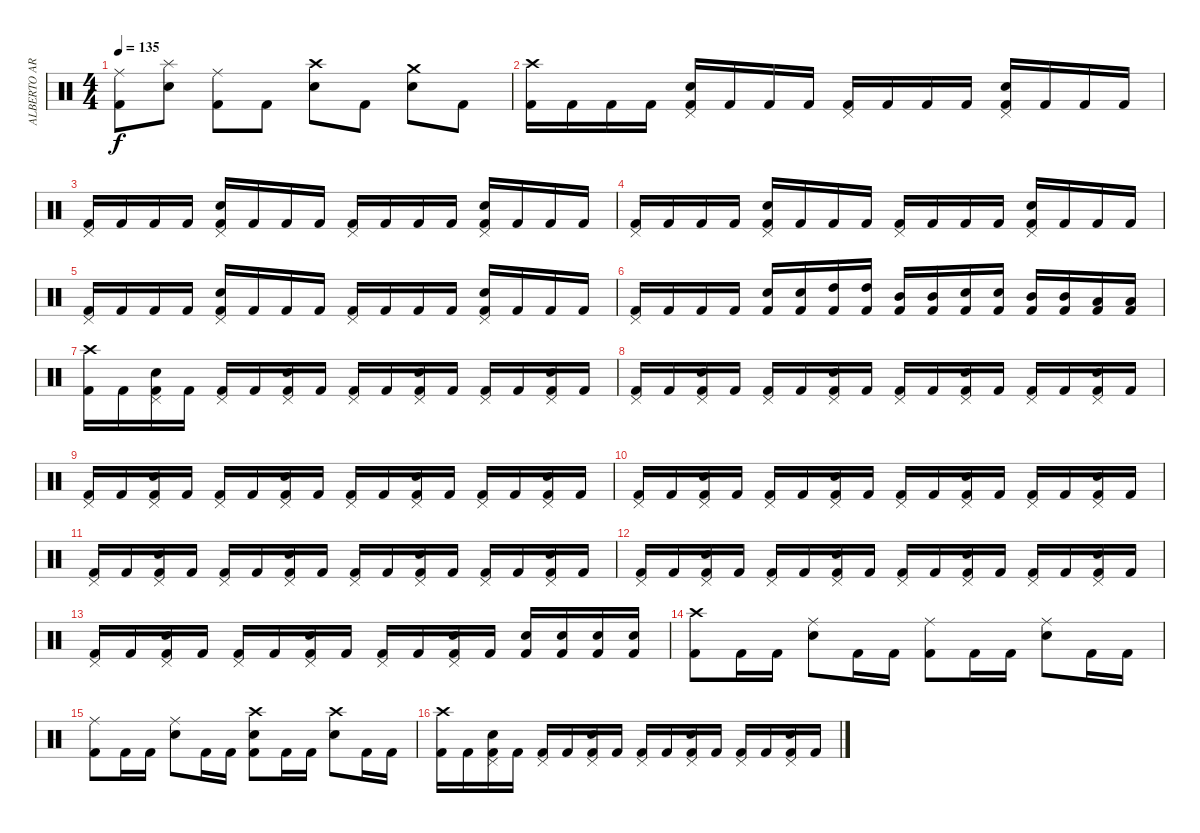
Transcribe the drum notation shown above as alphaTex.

\track ("ALBERTO ARDINES" "ALBERTO AR") {instrument percussion}
\staff {score}
\articulation defaults
\ts (4 4)
\tempo 135
\clef neutral
\ks c
("Ride (middle)" "Kick (hit) 2").8{dy f} ("Splash (hit)" "Electric Snare (hit)").8 ("Ride (middle)" "Kick (hit) 2").8 "Kick (hit) 2".8 ("Crash high (hit)" "Electric Snare (hit)").8 "Kick (hit) 2".8 ("Crash medium (hit)" "Electric Snare (hit)").8 "Kick (hit) 2".8 |
("Crash high (hit)" "Kick (hit) 2").16 "Kick (hit) 2".16 "Kick (hit) 2".16 "Kick (hit) 2".16 ("Pedal Hi-Hat (hit)" "Electric Snare (hit)" "Kick (hit) 2").16 "Kick (hit) 2".16 "Kick (hit) 2".16 "Kick (hit) 2".16 ("Pedal Hi-Hat (hit)" "Kick (hit) 2").16 "Kick (hit) 2".16 "Kick (hit) 2".16 "Kick (hit) 2".16 ("Pedal Hi-Hat (hit)" "Electric Snare (hit)" "Kick (hit) 2").16 "Kick (hit) 2".16 "Kick (hit) 2".16 "Kick (hit) 2".16 |
("Pedal Hi-Hat (hit)" "Kick (hit) 2").16 "Kick (hit) 2".16 "Kick (hit) 2".16 "Kick (hit) 2".16 ("Pedal Hi-Hat (hit)" "Electric Snare (hit)" "Kick (hit) 2").16 "Kick (hit) 2".16 "Kick (hit) 2".16 "Kick (hit) 2".16 ("Pedal Hi-Hat (hit)" "Kick (hit) 2").16 "Kick (hit) 2".16 "Kick (hit) 2".16 "Kick (hit) 2".16 ("Pedal Hi-Hat (hit)" "Electric Snare (hit)" "Kick (hit) 2").16 "Kick (hit) 2".16 "Kick (hit) 2".16 "Kick (hit) 2".16 |
("Pedal Hi-Hat (hit)" "Kick (hit) 2").16 "Kick (hit) 2".16 "Kick (hit) 2".16 "Kick (hit) 2".16 ("Pedal Hi-Hat (hit)" "Electric Snare (hit)" "Kick (hit) 2").16 "Kick (hit) 2".16 "Kick (hit) 2".16 "Kick (hit) 2".16 ("Pedal Hi-Hat (hit)" "Kick (hit) 2").16 "Kick (hit) 2".16 "Kick (hit) 2".16 "Kick (hit) 2".16 ("Pedal Hi-Hat (hit)" "Electric Snare (hit)" "Kick (hit) 2").16 "Kick (hit) 2".16 "Kick (hit) 2".16 "Kick (hit) 2".16 |
("Pedal Hi-Hat (hit)" "Kick (hit) 2").16 "Kick (hit) 2".16 "Kick (hit) 2".16 "Kick (hit) 2".16 ("Pedal Hi-Hat (hit)" "Electric Snare (hit)" "Kick (hit) 2").16 "Kick (hit) 2".16 "Kick (hit) 2".16 "Kick (hit) 2".16 ("Pedal Hi-Hat (hit)" "Kick (hit) 2").16 "Kick (hit) 2".16 "Kick (hit) 2".16 "Kick (hit) 2".16 ("Pedal Hi-Hat (hit)" "Electric Snare (hit)" "Kick (hit) 2").16 "Kick (hit) 2".16 "Kick (hit) 2".16 "Kick (hit) 2".16 |
("Pedal Hi-Hat (hit)" "Kick (hit) 2").16 "Kick (hit) 2".16 "Kick (hit) 2".16 "Kick (hit) 2".16 ("Electric Snare (hit)" "Kick (hit) 2").16 ("Electric Snare (hit)" "Kick (hit) 2").16 ("High Tom (hit)" "Kick (hit) 2").16 ("High Tom (hit)" "Kick (hit) 2").16 ("Mid Tom (hit)" "Kick (hit) 2").16 ("Mid Tom (hit)" "Kick (hit) 2").16 ("Electric Snare (hit)" "Kick (hit) 2").16 ("Electric Snare (hit)" "Kick (hit) 2").16 ("Mid Tom (hit)" "Kick (hit) 2").16 ("Mid Tom (hit)" "Kick (hit) 2").16 ("Low Tom (hit)" "Kick (hit) 2").16 ("Low Tom (hit)" "Kick (hit) 2").16 |
("Crash high (hit)" "Kick (hit) 2").16 "Kick (hit) 2".16 ("Pedal Hi-Hat (hit)" "Electric Snare (hit)" "Kick (hit) 2").16 "Kick (hit) 2".16 ("Pedal Hi-Hat (hit)" "Kick (hit) 2").16 "Kick (hit) 2".16 ("Pedal Hi-Hat (hit)" "Electric Snare (hit)" "Kick (hit) 2").16 "Kick (hit) 2".16 ("Pedal Hi-Hat (hit)" "Kick (hit) 2").16 "Kick (hit) 2".16 ("Pedal Hi-Hat (hit)" "Electric Snare (hit)" "Kick (hit) 2").16 "Kick (hit) 2".16 ("Pedal Hi-Hat (hit)" "Kick (hit) 2").16 "Kick (hit) 2".16 ("Pedal Hi-Hat (hit)" "Electric Snare (hit)" "Kick (hit) 2").16 "Kick (hit) 2".16 |
("Pedal Hi-Hat (hit)" "Kick (hit) 2").16 "Kick (hit) 2".16 ("Pedal Hi-Hat (hit)" "Electric Snare (hit)" "Kick (hit) 2").16 "Kick (hit) 2".16 ("Pedal Hi-Hat (hit)" "Kick (hit) 2").16 "Kick (hit) 2".16 ("Pedal Hi-Hat (hit)" "Electric Snare (hit)" "Kick (hit) 2").16 "Kick (hit) 2".16 ("Pedal Hi-Hat (hit)" "Kick (hit) 2").16 "Kick (hit) 2".16 ("Pedal Hi-Hat (hit)" "Electric Snare (hit)" "Kick (hit) 2").16 "Kick (hit) 2".16 ("Pedal Hi-Hat (hit)" "Kick (hit) 2").16 "Kick (hit) 2".16 ("Pedal Hi-Hat (hit)" "Electric Snare (hit)" "Kick (hit) 2").16 "Kick (hit) 2".16 |
("Pedal Hi-Hat (hit)" "Kick (hit) 2").16 "Kick (hit) 2".16 ("Pedal Hi-Hat (hit)" "Electric Snare (hit)" "Kick (hit) 2").16 "Kick (hit) 2".16 ("Pedal Hi-Hat (hit)" "Kick (hit) 2").16 "Kick (hit) 2".16 ("Pedal Hi-Hat (hit)" "Electric Snare (hit)" "Kick (hit) 2").16 "Kick (hit) 2".16 ("Pedal Hi-Hat (hit)" "Kick (hit) 2").16 "Kick (hit) 2".16 ("Pedal Hi-Hat (hit)" "Electric Snare (hit)" "Kick (hit) 2").16 "Kick (hit) 2".16 ("Pedal Hi-Hat (hit)" "Kick (hit) 2").16 "Kick (hit) 2".16 ("Pedal Hi-Hat (hit)" "Electric Snare (hit)" "Kick (hit) 2").16 "Kick (hit) 2".16 |
("Pedal Hi-Hat (hit)" "Kick (hit) 2").16 "Kick (hit) 2".16 ("Pedal Hi-Hat (hit)" "Electric Snare (hit)" "Kick (hit) 2").16 "Kick (hit) 2".16 ("Pedal Hi-Hat (hit)" "Kick (hit) 2").16 "Kick (hit) 2".16 ("Pedal Hi-Hat (hit)" "Electric Snare (hit)" "Kick (hit) 2").16 "Kick (hit) 2".16 ("Pedal Hi-Hat (hit)" "Kick (hit) 2").16 "Kick (hit) 2".16 ("Pedal Hi-Hat (hit)" "Electric Snare (hit)" "Kick (hit) 2").16 "Kick (hit) 2".16 ("Pedal Hi-Hat (hit)" "Kick (hit) 2").16 "Kick (hit) 2".16 ("Pedal Hi-Hat (hit)" "Electric Snare (hit)" "Kick (hit) 2").16 "Kick (hit) 2".16 |
("Pedal Hi-Hat (hit)" "Kick (hit) 2").16 "Kick (hit) 2".16 ("Pedal Hi-Hat (hit)" "Electric Snare (hit)" "Kick (hit) 2").16 "Kick (hit) 2".16 ("Pedal Hi-Hat (hit)" "Kick (hit) 2").16 "Kick (hit) 2".16 ("Pedal Hi-Hat (hit)" "Electric Snare (hit)" "Kick (hit) 2").16 "Kick (hit) 2".16 ("Pedal Hi-Hat (hit)" "Kick (hit) 2").16 "Kick (hit) 2".16 ("Pedal Hi-Hat (hit)" "Electric Snare (hit)" "Kick (hit) 2").16 "Kick (hit) 2".16 ("Pedal Hi-Hat (hit)" "Kick (hit) 2").16 "Kick (hit) 2".16 ("Pedal Hi-Hat (hit)" "Electric Snare (hit)" "Kick (hit) 2").16 "Kick (hit) 2".16 |
("Pedal Hi-Hat (hit)" "Kick (hit) 2").16 "Kick (hit) 2".16 ("Pedal Hi-Hat (hit)" "Electric Snare (hit)" "Kick (hit) 2").16 "Kick (hit) 2".16 ("Pedal Hi-Hat (hit)" "Kick (hit) 2").16 "Kick (hit) 2".16 ("Pedal Hi-Hat (hit)" "Electric Snare (hit)" "Kick (hit) 2").16 "Kick (hit) 2".16 ("Pedal Hi-Hat (hit)" "Kick (hit) 2").16 "Kick (hit) 2".16 ("Pedal Hi-Hat (hit)" "Electric Snare (hit)" "Kick (hit) 2").16 "Kick (hit) 2".16 ("Pedal Hi-Hat (hit)" "Kick (hit) 2").16 "Kick (hit) 2".16 ("Pedal Hi-Hat (hit)" "Electric Snare (hit)" "Kick (hit) 2").16 "Kick (hit) 2".16 |
("Pedal Hi-Hat (hit)" "Kick (hit) 2").16 "Kick (hit) 2".16 ("Pedal Hi-Hat (hit)" "Electric Snare (hit)" "Kick (hit) 2").16 "Kick (hit) 2".16 ("Pedal Hi-Hat (hit)" "Kick (hit) 2").16 "Kick (hit) 2".16 ("Pedal Hi-Hat (hit)" "Electric Snare (hit)" "Kick (hit) 2").16 "Kick (hit) 2".16 ("Pedal Hi-Hat (hit)" "Kick (hit) 2").16 "Kick (hit) 2".16 ("Pedal Hi-Hat (hit)" "Electric Snare (hit)" "Kick (hit) 2").16 "Kick (hit) 2".16 ("Electric Snare (hit)" "Kick (hit) 2").16 ("Electric Snare (hit)" "Kick (hit) 2").16 ("Electric Snare (hit)" "Kick (hit) 2").16 ("Electric Snare (hit)" "Kick (hit) 2").16 |
("Crash high (hit)" "Kick (hit) 2").8 "Kick (hit) 2".16 "Kick (hit) 2".16 ("Ride (middle)" "Electric Snare (hit)").8 "Kick (hit) 2".16 "Kick (hit) 2".16 ("Ride (middle)" "Kick (hit) 2").8 "Kick (hit) 2".16 "Kick (hit) 2".16 ("Ride (middle)" "Electric Snare (hit)").8 "Kick (hit) 2".16 "Kick (hit) 2".16 |
("Ride (middle)" "Kick (hit) 2").8 "Kick (hit) 2".16 "Kick (hit) 2".16 ("Ride (middle)" "Electric Snare (hit)").8 "Kick (hit) 2".16 "Kick (hit) 2".16 ("Crash high (hit)" "Electric Snare (hit)" "Kick (hit) 2").8 "Kick (hit) 2".16 "Kick (hit) 2".16 ("Crash high (hit)" "Electric Snare (hit)").8 "Kick (hit) 2".16 "Kick (hit) 2".16 |
("Crash high (hit)" "Kick (hit) 2").16 "Kick (hit) 2".16 ("Pedal Hi-Hat (hit)" "Electric Snare (hit)" "Kick (hit) 2").16 "Kick (hit) 2".16 ("Pedal Hi-Hat (hit)" "Kick (hit) 2").16 "Kick (hit) 2".16 ("Pedal Hi-Hat (hit)" "Electric Snare (hit)" "Kick (hit) 2").16 "Kick (hit) 2".16 ("Pedal Hi-Hat (hit)" "Kick (hit) 2").16 "Kick (hit) 2".16 ("Pedal Hi-Hat (hit)" "Electric Snare (hit)" "Kick (hit) 2").16 "Kick (hit) 2".16 ("Pedal Hi-Hat (hit)" "Kick (hit) 2").16 "Kick (hit) 2".16 ("Pedal Hi-Hat (hit)" "Electric Snare (hit)" "Kick (hit) 2").16 "Kick (hit) 2".16
